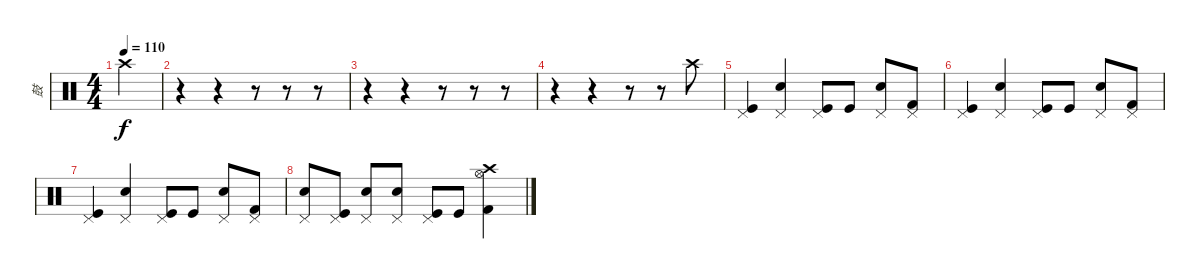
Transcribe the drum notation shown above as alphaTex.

\track ("鼓" "鼓") {instrument percussion}
\staff {score}
\articulation defaults
\ts (4 4)
\tempo 110
\clef neutral
\ks c "Crash high (hit)".4{dy f}
|
r.4 r.4 r.8 r.8 r.8 |
r.4 r.4 r.8 r.8 r.8 |
r.4 r.4 r.8 r.8 "Crash high (hit)".8 |
("Pedal Hi-Hat (hit)" "Kick (hit)").4 ("Pedal Hi-Hat (hit)" "Snare (hit) 2").4 ("Pedal Hi-Hat (hit)" "Kick (hit)").8 "Kick (hit)".8 ("Pedal Hi-Hat (hit)" "Snare (hit) 2").8 ("Kick (hit) 2" "Pedal Hi-Hat (hit)").8 |
("Pedal Hi-Hat (hit)" "Kick (hit)").4 ("Pedal Hi-Hat (hit)" "Snare (hit) 2").4 ("Pedal Hi-Hat (hit)" "Kick (hit)").8 "Kick (hit)".8 ("Pedal Hi-Hat (hit)" "Snare (hit) 2").8 ("Kick (hit) 2" "Pedal Hi-Hat (hit)").8 |
("Pedal Hi-Hat (hit)" "Kick (hit)").4 ("Pedal Hi-Hat (hit)" "Snare (hit) 2").4 ("Pedal Hi-Hat (hit)" "Kick (hit)").8 "Kick (hit)".8 ("Pedal Hi-Hat (hit)" "Snare (hit) 2").8 ("Kick (hit) 2" "Pedal Hi-Hat (hit)").8 |
("Snare (hit) 2" "Pedal Hi-Hat (hit)").8 ("Pedal Hi-Hat (hit)" "Kick (hit)").8 ("Electric Snare (hit)" "Pedal Hi-Hat (hit)").8 ("Pedal Hi-Hat (hit)" "Snare (hit) 2").8 ("Pedal Hi-Hat (hit)" "Kick (hit)").8 "Kick (hit)".8 ("Hi-Hat (open)" "Crash high (hit)" "Kick (hit) 2").4
